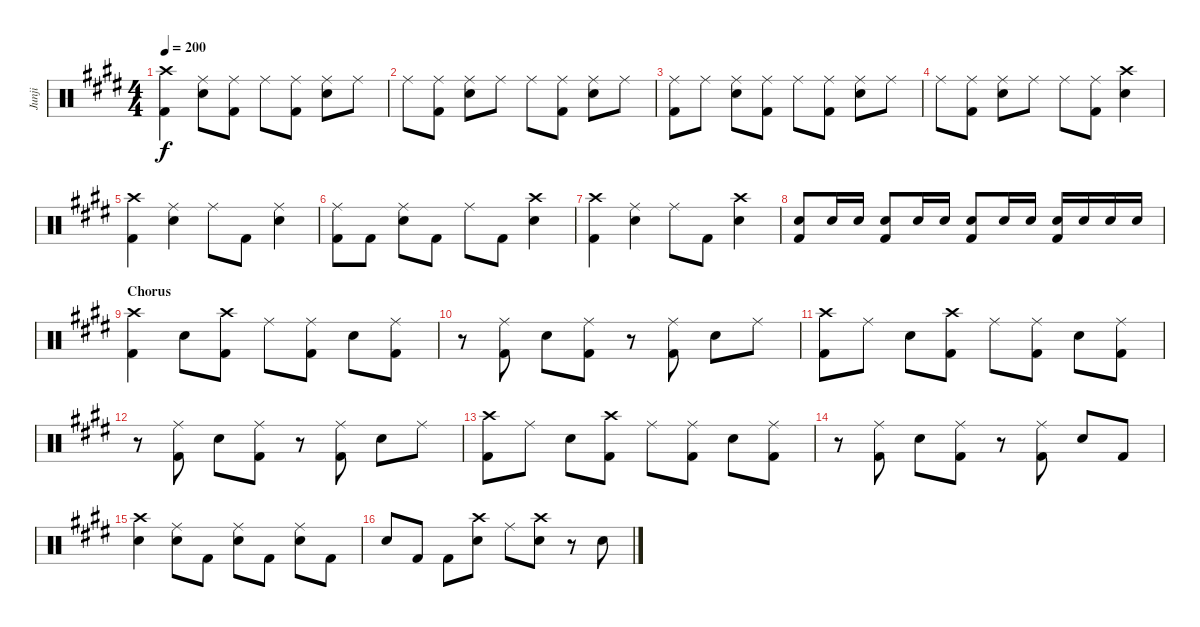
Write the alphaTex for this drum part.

\track ("Junji" "Junji") {instrument percussion}
\staff {score}
\articulation defaults
\ts (4 4)
\tempo 200
\clef neutral
\ks e
("Crash high (hit)" "Kick (hit) 2").4{dy f} ("Ride (middle)" "Snare (hit) 2").8 ("Ride (middle)" "Kick (hit) 2").8 "Ride (middle)".8 ("Ride (middle)" "Kick (hit) 2").8 ("Ride (middle)" "Snare (hit) 2").8 "Ride (middle)".8 |
"Ride (middle)".8 ("Ride (middle)" "Kick (hit) 2").8 ("Ride (middle)" "Snare (hit) 2").8 "Ride (middle)".8 "Ride (middle)".8 ("Ride (middle)" "Kick (hit) 2").8 ("Ride (middle)" "Snare (hit) 2").8 "Ride (middle)".8 |
("Ride (middle)" "Kick (hit) 2").8 "Ride (middle)".8 ("Ride (middle)" "Snare (hit) 2").8 ("Ride (middle)" "Kick (hit) 2").8 "Ride (middle)".8 ("Ride (middle)" "Kick (hit) 2").8 ("Ride (middle)" "Snare (hit) 2").8 "Ride (middle)".8 |
"Ride (middle)".8 ("Ride (middle)" "Kick (hit) 2").8 ("Ride (middle)" "Snare (hit) 2").8 "Ride (middle)".8 "Ride (middle)".8 ("Ride (middle)" "Kick (hit) 2").8 ("Crash high (hit)" "Snare (hit) 2").4 |
("Crash high (hit)" "Kick (hit) 2").4 ("Ride (middle)" "Snare (hit) 2").4 "Ride (middle)".8 "Kick (hit) 2".8 ("Ride (middle)" "Snare (hit) 2").4 |
("Ride (middle)" "Kick (hit) 2").8 "Kick (hit) 2".8 ("Ride (middle)" "Snare (hit) 2").8 "Kick (hit) 2".8 "Ride (middle)".8 "Kick (hit) 2".8 ("Crash high (hit)" "Snare (hit) 2").4 |
("Crash high (hit)" "Kick (hit) 2").4 ("Ride (middle)" "Snare (hit) 2").4 "Ride (middle)".8 "Kick (hit) 2".8 ("Crash high (hit)" "Snare (hit) 2").4 |
("Snare (hit) 2" "Kick (hit) 2").8 "Snare (hit) 2".16 "Snare (hit) 2".16 ("Snare (hit) 2" "Kick (hit) 2").8 "Snare (hit) 2".16 "Snare (hit) 2".16 ("Snare (hit) 2" "Kick (hit) 2").8 "Snare (hit) 2".16 "Snare (hit) 2".16 ("Snare (hit) 2" "Kick (hit) 2").16 "Snare (hit) 2".16 "Snare (hit) 2".16 "Snare (hit) 2".16 |
\section ("" "Chorus")
("Crash high (hit)" "Kick (hit) 2").4 "Snare (hit) 2".8 ("Crash high (hit)" "Kick (hit) 2").8 "Ride (middle)".8 ("Ride (middle)" "Kick (hit) 2").8 "Snare (hit) 2".8 ("Ride (middle)" "Kick (hit) 2").8 |
r.8 ("Ride (middle)" "Kick (hit) 2").8 "Snare (hit) 2".8 ("Ride (middle)" "Kick (hit) 2").8 r.8 ("Ride (middle)" "Kick (hit) 2").8 "Snare (hit) 2".8 "Ride (middle)".8 |
("Crash high (hit)" "Kick (hit) 2").8 "Ride (middle)".8 "Snare (hit) 2".8 ("Crash high (hit)" "Kick (hit) 2").8 "Ride (middle)".8 ("Ride (middle)" "Kick (hit) 2").8 "Snare (hit) 2".8 ("Ride (middle)" "Kick (hit) 2").8 |
r.8 ("Ride (middle)" "Kick (hit) 2").8 "Snare (hit) 2".8 ("Ride (middle)" "Kick (hit) 2").8 r.8 ("Ride (middle)" "Kick (hit) 2").8 "Snare (hit) 2".8 "Ride (middle)".8 |
("Crash high (hit)" "Kick (hit) 2").8 "Ride (middle)".8 "Snare (hit) 2".8 ("Crash high (hit)" "Kick (hit) 2").8 "Ride (middle)".8 ("Ride (middle)" "Kick (hit) 2").8 "Snare (hit) 2".8 ("Ride (middle)" "Kick (hit) 2").8 |
r.8 ("Ride (middle)" "Kick (hit) 2").8 "Snare (hit) 2".8 ("Ride (middle)" "Kick (hit) 2").8 r.8 ("Ride (middle)" "Kick (hit) 2").8 "Snare (hit) 2".8 "Kick (hit) 2".8 |
("Crash high (hit)" "Snare (hit) 2").4 ("Ride (middle)" "Snare (hit) 2").8 "Kick (hit) 2".8 ("Ride (middle)" "Snare (hit) 2").8 "Kick (hit) 2".8 ("Ride (middle)" "Snare (hit) 2").8 "Kick (hit) 2".8 |
"Snare (hit) 2".8 "Kick (hit) 2".8 "Kick (hit) 2".8 ("Crash high (hit)" "Snare (hit) 2").8 "Ride (middle)".8 ("Crash high (hit)" "Snare (hit) 2").8 r.8 "Snare (hit) 2".8
